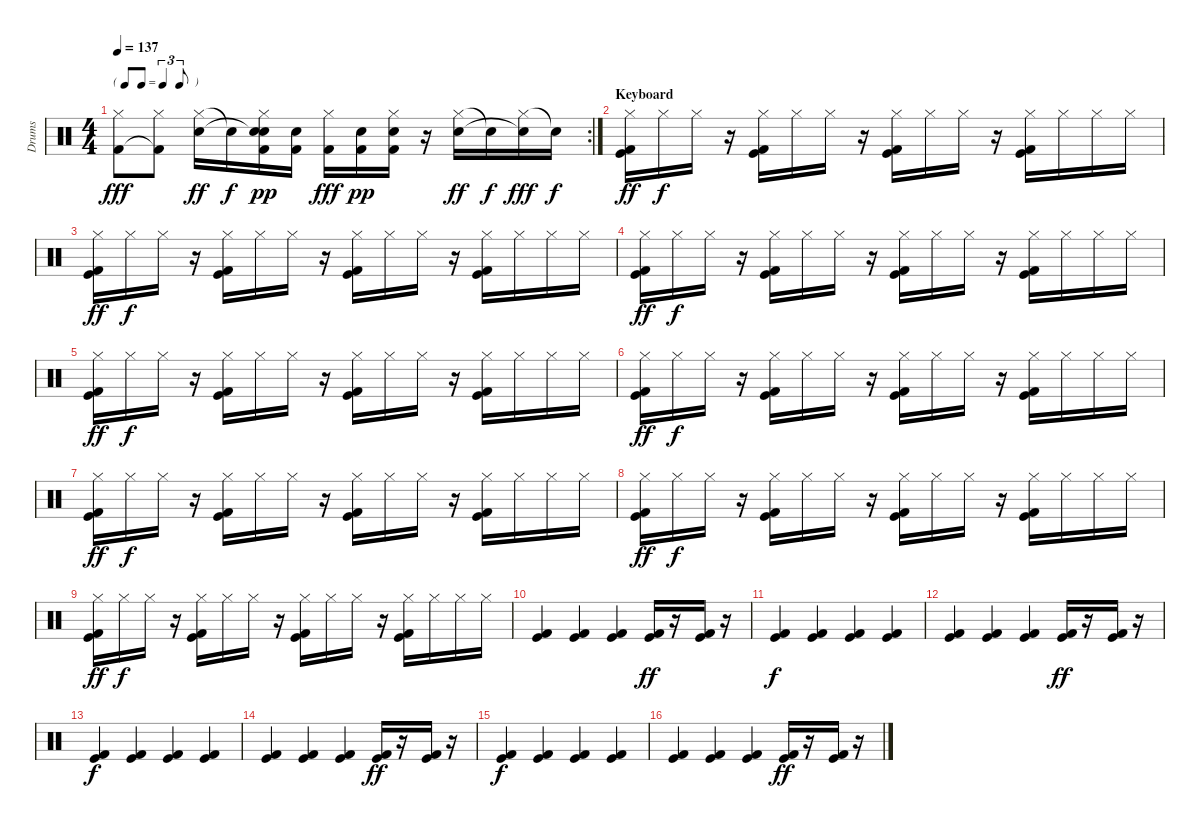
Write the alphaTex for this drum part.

\track ("Drums" "Drums") {instrument percussion}
\staff {score}
\articulation defaults
\rc 2
\ts (4 4)
\tf triplet8th
\tempo 137
\clef neutral
\ks c
("Hi-Hat (closed)" "Kick (hit) 2").8{dy fff} ("Hi-Hat (closed)" "Kick (hit) 2"{t}).8 ("Hi-Hat (closed)" "Electric Snare (hit)").16{dy ff} "Snare (hit)"{t}.16{dy f} ("Hi-Hat (closed)" "Snare (hit)"{t} "Electric Snare (hit)" "Kick (hit) 2").16{dy pp} ("Electric Snare (hit)" "Kick (hit) 2").16 ("Hi-Hat (closed)" "Kick (hit) 2").16{dy fff} ("Electric Snare (hit)" "Kick (hit) 2").16{dy pp} ("Hi-Hat (closed)" "Electric Snare (hit)" "Kick (hit) 2").16 r.16 ("Hi-Hat (closed)" "Electric Snare (hit)").16{dy ff} "Snare (hit)"{t}.16{dy f} ("Hi-Hat (closed)" "Snare (hit)"{t}).16{dy fff} "Snare (hit)"{t}.16{dy f} |
\section ("" "Keyboard ")
("Hi-Hat (closed)" "Kick (hit)" "Kick (hit) 2").16{dy ff} "Hi-Hat (closed)".16{dy f} "Hi-Hat (closed)".16 r.16 ("Hi-Hat (closed)" "Kick (hit)" "Kick (hit) 2").16 "Hi-Hat (closed)".16 "Hi-Hat (closed)".16 r.16 ("Hi-Hat (closed)" "Kick (hit)" "Kick (hit) 2").16 "Hi-Hat (closed)".16 "Hi-Hat (closed)".16 r.16 ("Hi-Hat (closed)" "Kick (hit)" "Kick (hit) 2").16 "Hi-Hat (closed)".16 "Hi-Hat (closed)".16 "Hi-Hat (closed)".16 |
("Hi-Hat (closed)" "Kick (hit)" "Kick (hit) 2").16{dy ff} "Hi-Hat (closed)".16{dy f} "Hi-Hat (closed)".16 r.16 ("Hi-Hat (closed)" "Kick (hit)" "Kick (hit) 2").16 "Hi-Hat (closed)".16 "Hi-Hat (closed)".16 r.16 ("Hi-Hat (closed)" "Kick (hit)" "Kick (hit) 2").16 "Hi-Hat (closed)".16 "Hi-Hat (closed)".16 r.16 ("Hi-Hat (closed)" "Kick (hit)" "Kick (hit) 2").16 "Hi-Hat (closed)".16 "Hi-Hat (closed)".16 "Hi-Hat (closed)".16 |
("Hi-Hat (closed)" "Kick (hit)" "Kick (hit) 2").16{dy ff} "Hi-Hat (closed)".16{dy f} "Hi-Hat (closed)".16 r.16 ("Hi-Hat (closed)" "Kick (hit)" "Kick (hit) 2").16 "Hi-Hat (closed)".16 "Hi-Hat (closed)".16 r.16 ("Hi-Hat (closed)" "Kick (hit)" "Kick (hit) 2").16 "Hi-Hat (closed)".16 "Hi-Hat (closed)".16 r.16 ("Hi-Hat (closed)" "Kick (hit)" "Kick (hit) 2").16 "Hi-Hat (closed)".16 "Hi-Hat (closed)".16 "Hi-Hat (closed)".16 |
("Hi-Hat (closed)" "Kick (hit)" "Kick (hit) 2").16{dy ff} "Hi-Hat (closed)".16{dy f} "Hi-Hat (closed)".16 r.16 ("Hi-Hat (closed)" "Kick (hit)" "Kick (hit) 2").16 "Hi-Hat (closed)".16 "Hi-Hat (closed)".16 r.16 ("Hi-Hat (closed)" "Kick (hit)" "Kick (hit) 2").16 "Hi-Hat (closed)".16 "Hi-Hat (closed)".16 r.16 ("Hi-Hat (closed)" "Kick (hit)" "Kick (hit) 2").16 "Hi-Hat (closed)".16 "Hi-Hat (closed)".16 "Hi-Hat (closed)".16 |
("Hi-Hat (closed)" "Kick (hit)" "Kick (hit) 2").16{dy ff} "Hi-Hat (closed)".16{dy f} "Hi-Hat (closed)".16 r.16 ("Hi-Hat (closed)" "Kick (hit)" "Kick (hit) 2").16 "Hi-Hat (closed)".16 "Hi-Hat (closed)".16 r.16 ("Hi-Hat (closed)" "Kick (hit)" "Kick (hit) 2").16 "Hi-Hat (closed)".16 "Hi-Hat (closed)".16 r.16 ("Hi-Hat (closed)" "Kick (hit)" "Kick (hit) 2").16 "Hi-Hat (closed)".16 "Hi-Hat (closed)".16 "Hi-Hat (closed)".16 |
("Hi-Hat (closed)" "Kick (hit)" "Kick (hit) 2").16{dy ff} "Hi-Hat (closed)".16{dy f} "Hi-Hat (closed)".16 r.16 ("Hi-Hat (closed)" "Kick (hit)" "Kick (hit) 2").16 "Hi-Hat (closed)".16 "Hi-Hat (closed)".16 r.16 ("Hi-Hat (closed)" "Kick (hit)" "Kick (hit) 2").16 "Hi-Hat (closed)".16 "Hi-Hat (closed)".16 r.16 ("Hi-Hat (closed)" "Kick (hit)" "Kick (hit) 2").16 "Hi-Hat (closed)".16 "Hi-Hat (closed)".16 "Hi-Hat (closed)".16 |
("Hi-Hat (closed)" "Kick (hit)" "Kick (hit) 2").16{dy ff} "Hi-Hat (closed)".16{dy f} "Hi-Hat (closed)".16 r.16 ("Hi-Hat (closed)" "Kick (hit)" "Kick (hit) 2").16 "Hi-Hat (closed)".16 "Hi-Hat (closed)".16 r.16 ("Hi-Hat (closed)" "Kick (hit)" "Kick (hit) 2").16 "Hi-Hat (closed)".16 "Hi-Hat (closed)".16 r.16 ("Hi-Hat (closed)" "Kick (hit)" "Kick (hit) 2").16 "Hi-Hat (closed)".16 "Hi-Hat (closed)".16 "Hi-Hat (closed)".16 |
("Hi-Hat (closed)" "Kick (hit)" "Kick (hit) 2").16{dy ff} "Hi-Hat (closed)".16{dy f} "Hi-Hat (closed)".16 r.16 ("Hi-Hat (closed)" "Kick (hit)" "Kick (hit) 2").16 "Hi-Hat (closed)".16 "Hi-Hat (closed)".16 r.16 ("Hi-Hat (closed)" "Kick (hit)" "Kick (hit) 2").16 "Hi-Hat (closed)".16 "Hi-Hat (closed)".16 r.16 ("Hi-Hat (closed)" "Kick (hit)" "Kick (hit) 2").16 "Hi-Hat (closed)".16 "Hi-Hat (closed)".16 "Hi-Hat (closed)".16 |
("Kick (hit)" "Kick (hit) 2").4 ("Kick (hit)" "Kick (hit) 2").4 ("Kick (hit)" "Kick (hit) 2").4 ("Kick (hit)" "Kick (hit) 2").16{dy ff} r.16 ("Kick (hit)" "Kick (hit) 2").16 r.16 |
("Kick (hit)" "Kick (hit) 2").4{dy f} ("Kick (hit)" "Kick (hit) 2").4 ("Kick (hit)" "Kick (hit) 2").4 ("Kick (hit)" "Kick (hit) 2").4 |
("Kick (hit)" "Kick (hit) 2").4 ("Kick (hit)" "Kick (hit) 2").4 ("Kick (hit)" "Kick (hit) 2").4 ("Kick (hit)" "Kick (hit) 2").16{dy ff} r.16 ("Kick (hit)" "Kick (hit) 2").16 r.16 |
("Kick (hit)" "Kick (hit) 2").4{dy f} ("Kick (hit)" "Kick (hit) 2").4 ("Kick (hit)" "Kick (hit) 2").4 ("Kick (hit)" "Kick (hit) 2").4 |
("Kick (hit)" "Kick (hit) 2").4 ("Kick (hit)" "Kick (hit) 2").4 ("Kick (hit)" "Kick (hit) 2").4 ("Kick (hit)" "Kick (hit) 2").16{dy ff} r.16 ("Kick (hit)" "Kick (hit) 2").16 r.16 |
("Kick (hit)" "Kick (hit) 2").4{dy f} ("Kick (hit)" "Kick (hit) 2").4 ("Kick (hit)" "Kick (hit) 2").4 ("Kick (hit)" "Kick (hit) 2").4 |
("Kick (hit)" "Kick (hit) 2").4 ("Kick (hit)" "Kick (hit) 2").4 ("Kick (hit)" "Kick (hit) 2").4 ("Kick (hit)" "Kick (hit) 2").16{dy ff} r.16 ("Kick (hit)" "Kick (hit) 2").16 r.16
